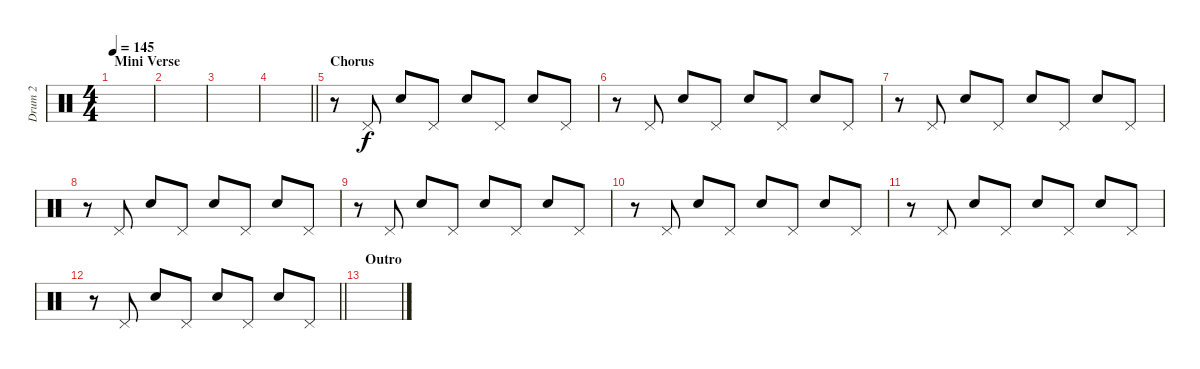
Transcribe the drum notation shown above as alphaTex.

\track ("Drum 2" "Drum 2") {instrument percussion}
\staff {score}
\articulation defaults
\ts (4 4)
\section ("" "Mini Verse")
\tempo 145
\clef neutral
\ks c
|
|
|
\barLineRight lightlight
|
\section ("" "Chorus")
r.8 "Pedal Hi-Hat (hit)".8 "Snare (hit) 2".8 "Pedal Hi-Hat (hit)".8 "Snare (hit) 2".8 "Pedal Hi-Hat (hit)".8 "Snare (hit) 2".8 "Pedal Hi-Hat (hit)".8 |
r.8 "Pedal Hi-Hat (hit)".8 "Snare (hit) 2".8 "Pedal Hi-Hat (hit)".8 "Snare (hit) 2".8 "Pedal Hi-Hat (hit)".8 "Snare (hit) 2".8 "Pedal Hi-Hat (hit)".8 |
r.8 "Pedal Hi-Hat (hit)".8 "Snare (hit) 2".8 "Pedal Hi-Hat (hit)".8 "Snare (hit) 2".8 "Pedal Hi-Hat (hit)".8 "Snare (hit) 2".8 "Pedal Hi-Hat (hit)".8 |
r.8 "Pedal Hi-Hat (hit)".8 "Snare (hit) 2".8 "Pedal Hi-Hat (hit)".8 "Snare (hit) 2".8 "Pedal Hi-Hat (hit)".8 "Snare (hit) 2".8 "Pedal Hi-Hat (hit)".8 |
r.8 "Pedal Hi-Hat (hit)".8 "Snare (hit) 2".8 "Pedal Hi-Hat (hit)".8 "Snare (hit) 2".8 "Pedal Hi-Hat (hit)".8 "Snare (hit) 2".8 "Pedal Hi-Hat (hit)".8 |
r.8 "Pedal Hi-Hat (hit)".8 "Snare (hit) 2".8 "Pedal Hi-Hat (hit)".8 "Snare (hit) 2".8 "Pedal Hi-Hat (hit)".8 "Snare (hit) 2".8 "Pedal Hi-Hat (hit)".8 |
r.8 "Pedal Hi-Hat (hit)".8 "Snare (hit) 2".8 "Pedal Hi-Hat (hit)".8 "Snare (hit) 2".8 "Pedal Hi-Hat (hit)".8 "Snare (hit) 2".8 "Pedal Hi-Hat (hit)".8 |
\barLineRight lightlight
r.8 "Pedal Hi-Hat (hit)".8 "Snare (hit) 2".8 "Pedal Hi-Hat (hit)".8 "Snare (hit) 2".8 "Pedal Hi-Hat (hit)".8 "Snare (hit) 2".8 "Pedal Hi-Hat (hit)".8 |
\section ("" "Outro")
